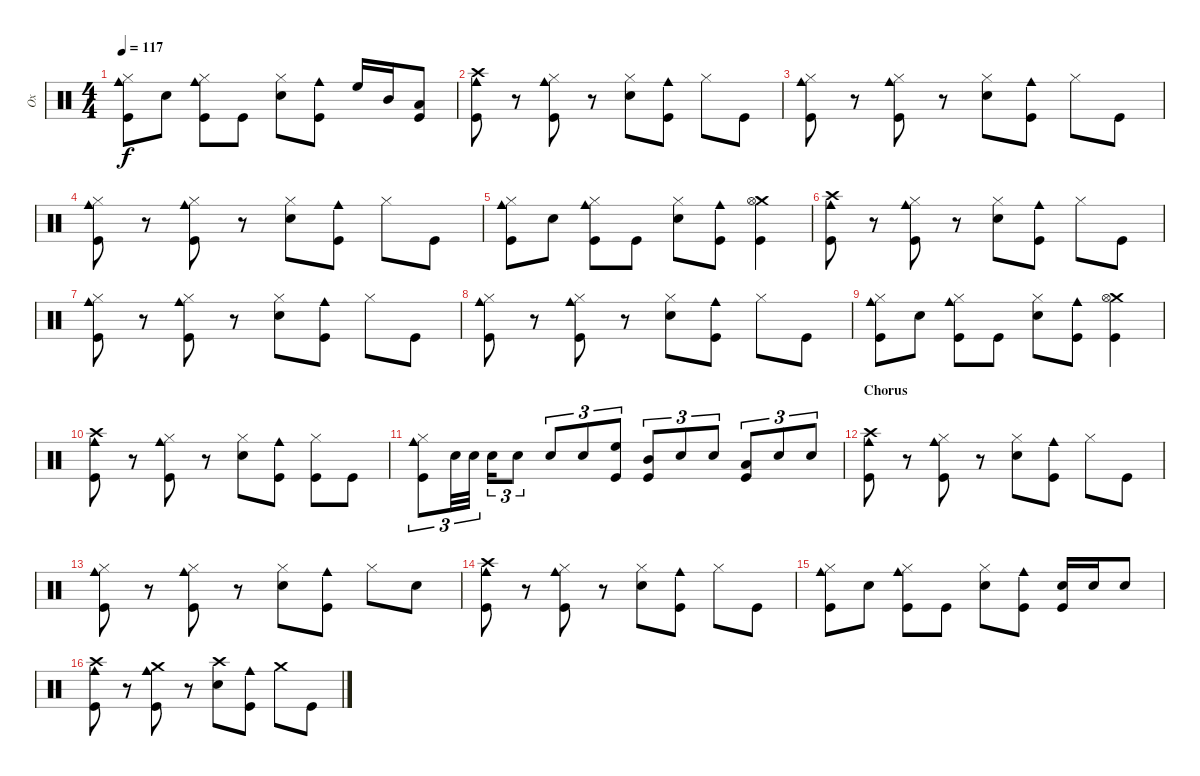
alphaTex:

\track ("Ox" "Ox") {instrument percussion}
\staff {score}
\articulation defaults
\ts (4 4)
\tempo 117
\clef neutral
\ks c
("Kick (hit)" "Hi-Hat (closed)" "Cowbell medium (hit)").8{dy f} "Snare (hit) 2".8 ("Kick (hit)" "Hi-Hat (closed)" "Cowbell medium (hit)").8 "Kick (hit)".8 ("Snare (hit) 2" "Hi-Hat (closed)").8 ("Kick (hit)" "Cowbell medium (hit)").8 "High Floor Tom (hit)".16 "Mid Tom (hit)".16 ("Kick (hit)" "Low Floor Tom (hit)").8 |
("Kick (hit)" "Crash high (hit)" "Cowbell medium (hit)").8 r.8 ("Kick (hit)" "Hi-Hat (closed)" "Cowbell medium (hit)").8 r.8 ("Snare (hit) 2" "Hi-Hat (closed)").8 ("Kick (hit)" "Cowbell medium (hit)").8 "Hi-Hat (closed)".8 "Kick (hit)".8 |
("Kick (hit)" "Hi-Hat (closed)" "Cowbell medium (hit)").8 r.8 ("Kick (hit)" "Hi-Hat (closed)" "Cowbell medium (hit)").8 r.8 ("Snare (hit) 2" "Hi-Hat (closed)").8 ("Kick (hit)" "Cowbell medium (hit)").8 "Hi-Hat (closed)".8 "Kick (hit)".8 |
("Kick (hit)" "Hi-Hat (closed)" "Cowbell medium (hit)").8 r.8 ("Kick (hit)" "Hi-Hat (closed)" "Cowbell medium (hit)").8 r.8 ("Snare (hit) 2" "Hi-Hat (closed)").8 ("Kick (hit)" "Cowbell medium (hit)").8 "Hi-Hat (closed)".8 "Kick (hit)".8 |
("Kick (hit)" "Hi-Hat (closed)" "Cowbell medium (hit)").8 "Snare (hit) 2".8 ("Kick (hit)" "Hi-Hat (closed)" "Cowbell medium (hit)").8 "Kick (hit)".8 ("Snare (hit) 2" "Hi-Hat (closed)").8 ("Kick (hit)" "Cowbell medium (hit)").8 ("Crash medium (hit)" "Kick (hit)" "Hi-Hat (open)").4 |
("Kick (hit)" "Crash high (hit)" "Cowbell medium (hit)").8 r.8 ("Kick (hit)" "Hi-Hat (closed)" "Cowbell medium (hit)").8 r.8 ("Snare (hit) 2" "Hi-Hat (closed)").8 ("Kick (hit)" "Cowbell medium (hit)").8 "Hi-Hat (closed)".8 "Kick (hit)".8 |
("Kick (hit)" "Hi-Hat (closed)" "Cowbell medium (hit)").8 r.8 ("Kick (hit)" "Hi-Hat (closed)" "Cowbell medium (hit)").8 r.8 ("Snare (hit) 2" "Hi-Hat (closed)").8 ("Kick (hit)" "Cowbell medium (hit)").8 "Hi-Hat (closed)".8 "Kick (hit)".8 |
("Kick (hit)" "Hi-Hat (closed)" "Cowbell medium (hit)").8 r.8 ("Kick (hit)" "Hi-Hat (closed)" "Cowbell medium (hit)").8 r.8 ("Snare (hit) 2" "Hi-Hat (closed)").8 ("Kick (hit)" "Cowbell medium (hit)").8 "Hi-Hat (closed)".8 "Kick (hit)".8 |
("Kick (hit)" "Hi-Hat (closed)" "Cowbell medium (hit)").8 "Snare (hit) 2".8 ("Kick (hit)" "Hi-Hat (closed)" "Cowbell medium (hit)").8 "Kick (hit)".8 ("Snare (hit) 2" "Hi-Hat (closed)").8 ("Kick (hit)" "Cowbell medium (hit)").8 ("Crash medium (hit)" "Kick (hit)" "Hi-Hat (open)").4 |
("Kick (hit)" "Crash high (hit)" "Cowbell medium (hit)").8 r.8 ("Kick (hit)" "Hi-Hat (closed)" "Cowbell medium (hit)").8 r.8 ("Snare (hit) 2" "Hi-Hat (closed)").8 ("Kick (hit)" "Cowbell medium (hit)").8 ("Hi-Hat (closed)" "Kick (hit)").8 "Kick (hit)".8 |
("Kick (hit)" "Cowbell medium (hit)" "Hi-Hat (closed)").8{tu (3 2)} "Snare (hit) 2".32{tu (3 2)} "Snare (hit) 2".32{tu (3 2)} "Snare (hit) 2".16{tu (3 2)} "Snare (hit) 2".8{tu (3 2)} "Snare (hit) 2".8{tu (3 2)} "Snare (hit) 2".8{tu (3 2)} ("High Floor Tom (hit)" "Kick (hit)").8{tu (3 2)} ("Mid Tom (hit)" "Kick (hit)").8{tu (3 2)} "Snare (hit) 2".8{tu (3 2)} "Snare (hit) 2".8{tu (3 2)} ("Low Floor Tom (hit)" "Kick (hit)").8{tu (3 2)} "Snare (hit) 2".8{tu (3 2)} "Snare (hit) 2".8{tu (3 2)} |
\section ("" "Chorus")
("Kick (hit)" "Crash high (hit)" "Cowbell medium (hit)").8 r.8 ("Kick (hit)" "Hi-Hat (closed)" "Cowbell medium (hit)").8 r.8 ("Snare (hit) 2" "Hi-Hat (closed)").8 ("Kick (hit)" "Cowbell medium (hit)").8 "Hi-Hat (closed)".8 "Kick (hit)".8 |
("Kick (hit)" "Hi-Hat (closed)" "Cowbell medium (hit)").8 r.8 ("Kick (hit)" "Hi-Hat (closed)" "Cowbell medium (hit)").8 r.8 ("Snare (hit) 2" "Hi-Hat (closed)").8 ("Kick (hit)" "Cowbell medium (hit)").8 "Hi-Hat (closed)".8 "Snare (hit) 2".8 |
("Kick (hit)" "Cowbell medium (hit)" "Crash high (hit)").8 r.8 ("Kick (hit)" "Hi-Hat (closed)" "Cowbell medium (hit)").8 r.8 ("Snare (hit) 2" "Hi-Hat (closed)").8 ("Kick (hit)" "Cowbell medium (hit)").8 "Hi-Hat (closed)".8 "Kick (hit)".8 |
("Kick (hit)" "Hi-Hat (closed)" "Cowbell medium (hit)").8 "Snare (hit) 2".8 ("Kick (hit)" "Hi-Hat (closed)" "Cowbell medium (hit)").8 "Kick (hit)".8 ("Snare (hit) 2" "Hi-Hat (closed)").8 ("Kick (hit)" "Cowbell medium (hit)").8 ("Kick (hit)" "Snare (hit) 2").16 "Snare (hit) 2".16 "Snare (hit) 2".8 |
("Kick (hit)" "Crash high (hit)" "Cowbell medium (hit)").8 r.8 ("Kick (hit)" "Crash medium (hit)" "Cowbell medium (hit)").8 r.8 ("Snare (hit) 2" "Crash high (hit)").8 ("Kick (hit)" "Cowbell medium (hit)").8 "Crash medium (hit)".8 "Kick (hit)".8
